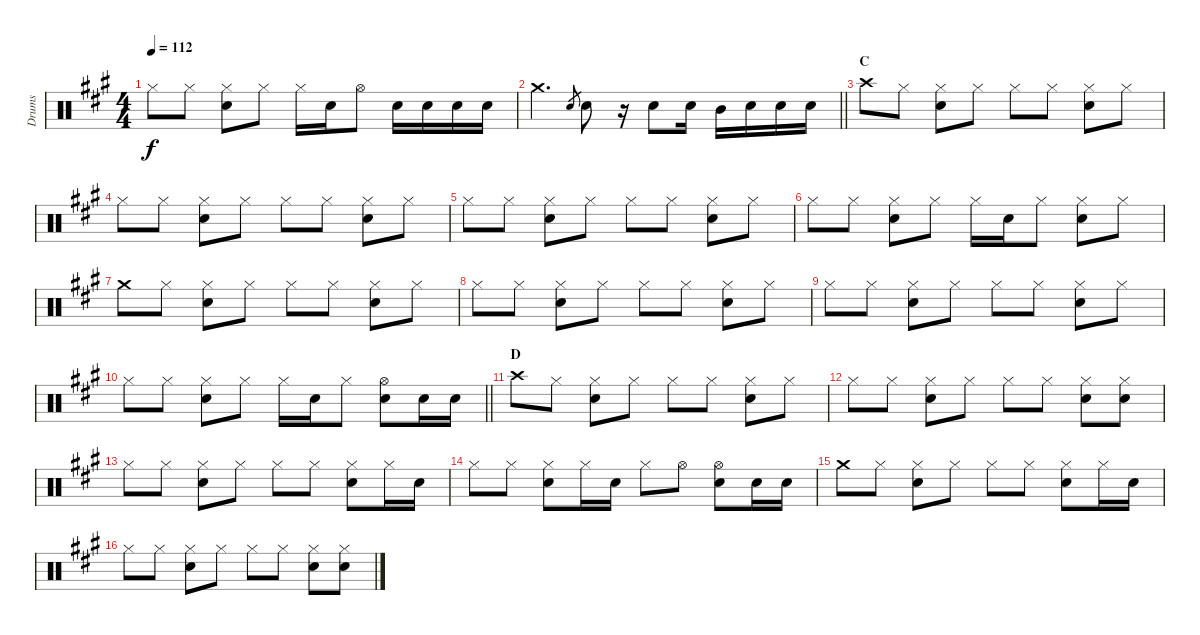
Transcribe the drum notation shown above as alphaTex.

\track ("Drums" "Drums") {instrument percussion}
\staff {score}
\articulation defaults
\ts (4 4)
\tempo 112
\clef neutral
\ks a "Hi-Hat (closed)".8{dy f} "Hi-Hat (closed)".8
("Hi-Hat (closed)" "Snare (hit) 2").8 "Hi-Hat (closed)".8 "Hi-Hat (closed)".16 "Snare (hit) 2".16 "Hi-Hat (open)".8 "Snare (hit) 2".16 "Snare (hit) 2".16 "Snare (hit) 2".16 "Snare (hit) 2".16 |
\barLineRight lightlight "Crash medium (hit)".4{d} "Snare (hit) 2".8{gr} "Snare (hit) 2".8
r.16 "Snare (hit) 2".8 "Snare (hit) 2".16 "Mid Tom (hit)".16 "Snare (hit) 2".16 "Snare (hit) 2".16 "Snare (hit) 2".16 |
\section ("" "C")
"Crash high (hit)".8 "Hi-Hat (closed)".8 ("Hi-Hat (closed)" "Snare (hit) 2").8 "Hi-Hat (closed)".8 "Hi-Hat (closed)".8 "Hi-Hat (closed)".8 ("Hi-Hat (closed)" "Snare (hit) 2").8 "Hi-Hat (closed)".8 |
"Hi-Hat (closed)".8 "Hi-Hat (closed)".8 ("Hi-Hat (closed)" "Snare (hit) 2").8 "Hi-Hat (closed)".8 "Hi-Hat (closed)".8 "Hi-Hat (closed)".8 ("Hi-Hat (closed)" "Snare (hit) 2").8 "Hi-Hat (closed)".8 |
"Hi-Hat (closed)".8 "Hi-Hat (closed)".8 ("Hi-Hat (closed)" "Snare (hit) 2").8 "Hi-Hat (closed)".8 "Hi-Hat (closed)".8 "Hi-Hat (closed)".8 ("Hi-Hat (closed)" "Snare (hit) 2").8 "Hi-Hat (closed)".8 |
"Hi-Hat (closed)".8 "Hi-Hat (closed)".8 ("Hi-Hat (closed)" "Snare (hit) 2").8 "Hi-Hat (closed)".8 "Hi-Hat (closed)".16 "Snare (hit) 2".16 "Hi-Hat (closed)".8 ("Hi-Hat (closed)" "Snare (hit) 2").8 "Hi-Hat (closed)".8 |
"Crash medium (hit)".8 "Hi-Hat (closed)".8 ("Hi-Hat (closed)" "Snare (hit) 2").8 "Hi-Hat (closed)".8 "Hi-Hat (closed)".8 "Hi-Hat (closed)".8 ("Hi-Hat (closed)" "Snare (hit) 2").8 "Hi-Hat (closed)".8 |
"Hi-Hat (closed)".8 "Hi-Hat (closed)".8 ("Hi-Hat (closed)" "Snare (hit) 2").8 "Hi-Hat (closed)".8 "Hi-Hat (closed)".8 "Hi-Hat (closed)".8 ("Hi-Hat (closed)" "Snare (hit) 2").8 "Hi-Hat (closed)".8 |
"Hi-Hat (closed)".8 "Hi-Hat (closed)".8 ("Hi-Hat (closed)" "Snare (hit) 2").8 "Hi-Hat (closed)".8 "Hi-Hat (closed)".8 "Hi-Hat (closed)".8 ("Hi-Hat (closed)" "Snare (hit) 2").8 "Hi-Hat (closed)".8 |
\barLineRight lightlight "Hi-Hat (closed)".8 "Hi-Hat (closed)".8
("Hi-Hat (closed)" "Snare (hit) 2").8 "Hi-Hat (closed)".8 "Hi-Hat (closed)".16 "Snare (hit) 2".16 "Hi-Hat (closed)".8 ("Hi-Hat (open)" "Snare (hit) 2").8 "Snare (hit) 2".16 "Snare (hit) 2".16 |
\section ("" "D")
"Crash high (hit)".8 "Hi-Hat (closed)".8 ("Hi-Hat (closed)" "Snare (hit) 2").8 "Hi-Hat (closed)".8 "Hi-Hat (closed)".8 "Hi-Hat (closed)".8 ("Hi-Hat (closed)" "Snare (hit) 2").8 "Hi-Hat (closed)".8 |
"Hi-Hat (closed)".8 "Hi-Hat (closed)".8 ("Hi-Hat (closed)" "Snare (hit) 2").8 "Hi-Hat (closed)".8 "Hi-Hat (closed)".8 "Hi-Hat (closed)".8 ("Hi-Hat (closed)" "Snare (hit) 2").8 ("Hi-Hat (closed)" "Snare (hit) 2").8 |
"Hi-Hat (closed)".8 "Hi-Hat (closed)".8 ("Hi-Hat (closed)" "Snare (hit) 2").8 "Hi-Hat (closed)".8 "Hi-Hat (closed)".8 "Hi-Hat (closed)".8 ("Hi-Hat (closed)" "Snare (hit) 2").8 "Hi-Hat (closed)".16 "Snare (hit) 2".16 |
"Hi-Hat (closed)".8 "Hi-Hat (closed)".8 ("Hi-Hat (closed)" "Snare (hit) 2").8 "Hi-Hat (closed)".16 "Snare (hit) 2".16 "Hi-Hat (closed)".8 "Hi-Hat (open)".8 ("Hi-Hat (open)" "Snare (hit) 2").8 "Snare (hit) 2".16 "Snare (hit) 2".16 |
"Crash medium (hit)".8 "Hi-Hat (closed)".8 ("Hi-Hat (closed)" "Snare (hit) 2").8 "Hi-Hat (closed)".8 "Hi-Hat (closed)".8 "Hi-Hat (closed)".8 ("Hi-Hat (closed)" "Snare (hit) 2").8 "Hi-Hat (closed)".16 "Snare (hit) 2".16 |
"Hi-Hat (closed)".8 "Hi-Hat (closed)".8 ("Hi-Hat (closed)" "Snare (hit) 2").8 "Hi-Hat (closed)".8 "Hi-Hat (closed)".8 "Hi-Hat (closed)".8 ("Hi-Hat (closed)" "Snare (hit) 2").8 ("Hi-Hat (closed)" "Snare (hit) 2").8
